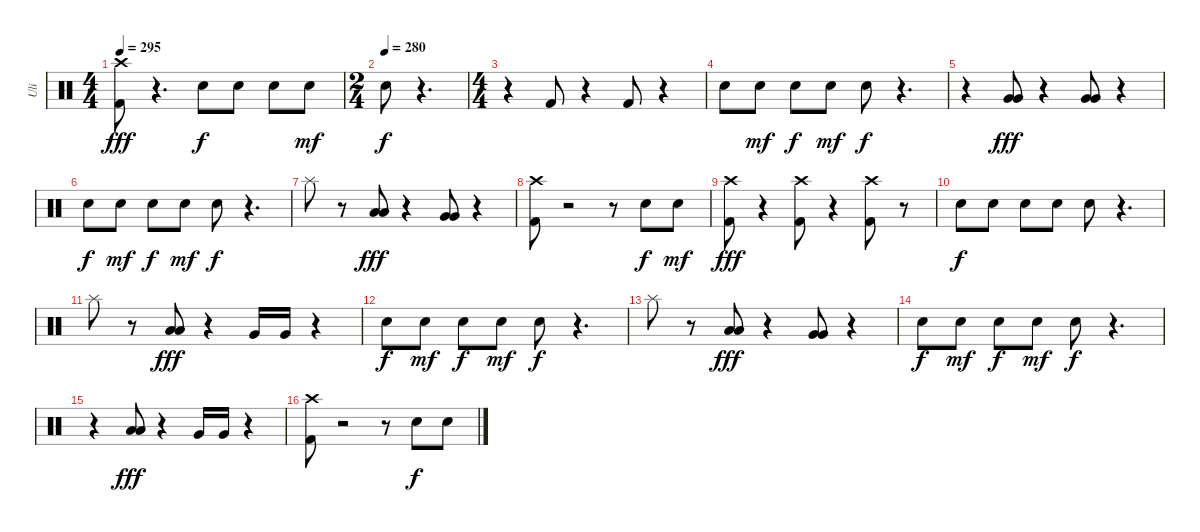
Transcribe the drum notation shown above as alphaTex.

\track ("Uli" "Uli") {instrument percussion}
\staff {score}
\articulation defaults
\ts (4 4)
\tempo 295
\clef neutral
\ks c
("Crash high (hit)" "Kick (hit) 2").8{dy fff} r.4{d} "Electric Snare (hit)".8{dy f} "Electric Snare (hit)".8 "Electric Snare (hit)".8 "Electric Snare (hit)".8{dy mf} |
\ts (2 4)
\tempo (280)
"Electric Snare (hit)".8{dy f} r.4{d} |
\ts (4 4)
r.4 "Kick (hit) 2".8 r.4 "Kick (hit) 2".8 r.4 |
"Electric Snare (hit)".8 "Electric Snare (hit)".8{dy mf} "Electric Snare (hit)".8{dy f} "Electric Snare (hit)".8{dy mf} "Electric Snare (hit)".8{dy f} r.4{d} |
r.4 ("Very Low Tom (hit)" "Very Low Tom (hit)").8{dy fff} r.4 ("Very Low Tom (hit)" "Very Low Tom (hit)").8 r.4 |
"Electric Snare (hit)".8{dy f} "Electric Snare (hit)".8{dy mf} "Electric Snare (hit)".8{dy f} "Electric Snare (hit)".8{dy mf} "Electric Snare (hit)".8{dy f} r.4{d} |
"Splash (hit)".8 r.8 ("Low Tom (hit)" "Low Tom (hit)").8{dy fff} r.4 ("Very Low Tom (hit)" "Very Low Tom (hit)").8 r.4 |
("Crash high (hit)" "Kick (hit) 2").8 r.2 r.8 "Electric Snare (hit)".8{dy f} "Electric Snare (hit)".8{dy mf} |
("Crash high (hit)" "Kick (hit) 2").8{dy fff} r.4 ("Crash high (hit)" "Kick (hit) 2").8 r.4 ("Crash high (hit)" "Kick (hit) 2").8 r.8 |
"Electric Snare (hit)".8{dy f} "Electric Snare (hit)".8 "Electric Snare (hit)".8 "Electric Snare (hit)".8 "Electric Snare (hit)".8 r.4{d} |
"Splash (hit)".8 r.8 ("Low Tom (hit)" "Low Tom (hit)").8{dy fff} r.4 "Very Low Tom (hit)".16 "Very Low Tom (hit)".16 r.4 |
"Electric Snare (hit)".8{dy f} "Electric Snare (hit)".8{dy mf} "Electric Snare (hit)".8{dy f} "Electric Snare (hit)".8{dy mf} "Electric Snare (hit)".8{dy f} r.4{d} |
"Splash (hit)".8 r.8 ("Low Tom (hit)" "Low Tom (hit)").8{dy fff} r.4 ("Very Low Tom (hit)" "Very Low Tom (hit)").8 r.4 |
"Electric Snare (hit)".8{dy f} "Electric Snare (hit)".8{dy mf} "Electric Snare (hit)".8{dy f} "Electric Snare (hit)".8{dy mf} "Electric Snare (hit)".8{dy f} r.4{d} |
r.4 ("Low Tom (hit)" "Low Tom (hit)").8{dy fff} r.4 "Very Low Tom (hit)".16 "Very Low Tom (hit)".16 r.4 |
("Crash high (hit)" "Kick (hit) 2").8 r.2 r.8 "Electric Snare (hit)".8{dy f} "Electric Snare (hit)".8
